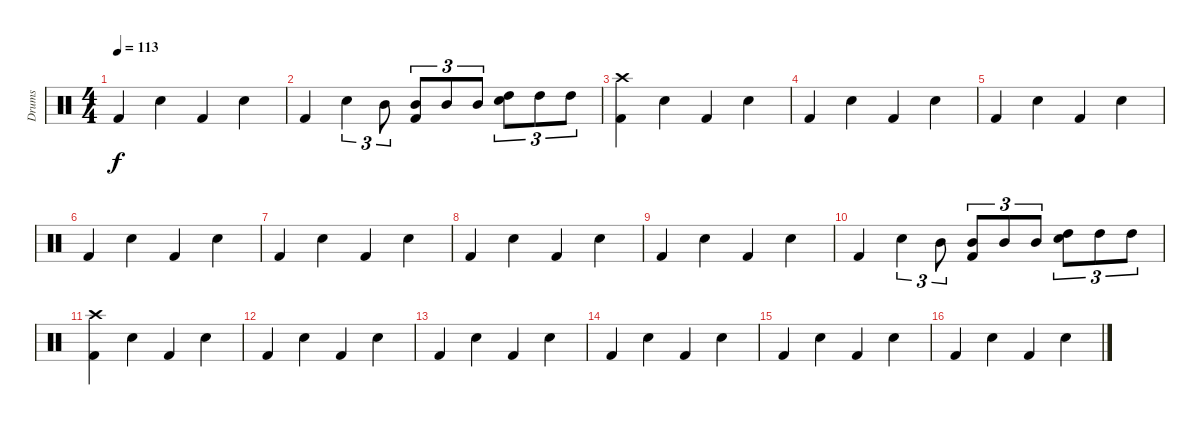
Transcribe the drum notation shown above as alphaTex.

\track ("Drums" "Drums") {instrument percussion}
\staff {score}
\articulation defaults
\ts (4 4)
\tempo 113
\clef neutral
\ks c "Kick (hit) 2".4{dy f} "Electric Snare (hit)".4 "Kick (hit) 2".4 "Electric Snare (hit)".4
|
"Kick (hit) 2".4 "Electric Snare (hit)".4{tu (3 2)} "Mid Tom (hit)".8{tu (3 2)} ("Mid Tom (hit)" "Kick (hit) 2").8{tu (3 2)} "Mid Tom (hit)".8{tu (3 2)} "Mid Tom (hit)".8{tu (3 2)} ("High Tom (hit)" "Electric Snare (hit)").8{tu (3 2)} "High Tom (hit)".8{tu (3 2)} "High Tom (hit)".8{tu (3 2)} |
("Crash high (hit)" "Kick (hit) 2").4 "Electric Snare (hit)".4 "Kick (hit) 2".4 "Electric Snare (hit)".4 |
"Kick (hit) 2".4 "Electric Snare (hit)".4 "Kick (hit) 2".4 "Electric Snare (hit)".4 |
"Kick (hit) 2".4 "Electric Snare (hit)".4 "Kick (hit) 2".4 "Electric Snare (hit)".4 |
"Kick (hit) 2".4 "Electric Snare (hit)".4 "Kick (hit) 2".4 "Electric Snare (hit)".4 |
"Kick (hit) 2".4 "Electric Snare (hit)".4 "Kick (hit) 2".4 "Electric Snare (hit)".4 |
"Kick (hit) 2".4 "Electric Snare (hit)".4 "Kick (hit) 2".4 "Electric Snare (hit)".4 |
"Kick (hit) 2".4 "Electric Snare (hit)".4 "Kick (hit) 2".4 "Electric Snare (hit)".4 |
"Kick (hit) 2".4 "Electric Snare (hit)".4{tu (3 2)} "Mid Tom (hit)".8{tu (3 2)} ("Mid Tom (hit)" "Kick (hit) 2").8{tu (3 2)} "Mid Tom (hit)".8{tu (3 2)} "Mid Tom (hit)".8{tu (3 2)} ("High Tom (hit)" "Electric Snare (hit)").8{tu (3 2)} "High Tom (hit)".8{tu (3 2)} "High Tom (hit)".8{tu (3 2)} |
("Crash high (hit)" "Kick (hit) 2").4 "Electric Snare (hit)".4 "Kick (hit) 2".4 "Electric Snare (hit)".4 |
"Kick (hit) 2".4 "Electric Snare (hit)".4 "Kick (hit) 2".4 "Electric Snare (hit)".4 |
"Kick (hit) 2".4 "Electric Snare (hit)".4 "Kick (hit) 2".4 "Electric Snare (hit)".4 |
"Kick (hit) 2".4 "Electric Snare (hit)".4 "Kick (hit) 2".4 "Electric Snare (hit)".4 |
"Kick (hit) 2".4 "Electric Snare (hit)".4 "Kick (hit) 2".4 "Electric Snare (hit)".4 |
"Kick (hit) 2".4 "Electric Snare (hit)".4 "Kick (hit) 2".4 "Electric Snare (hit)".4
